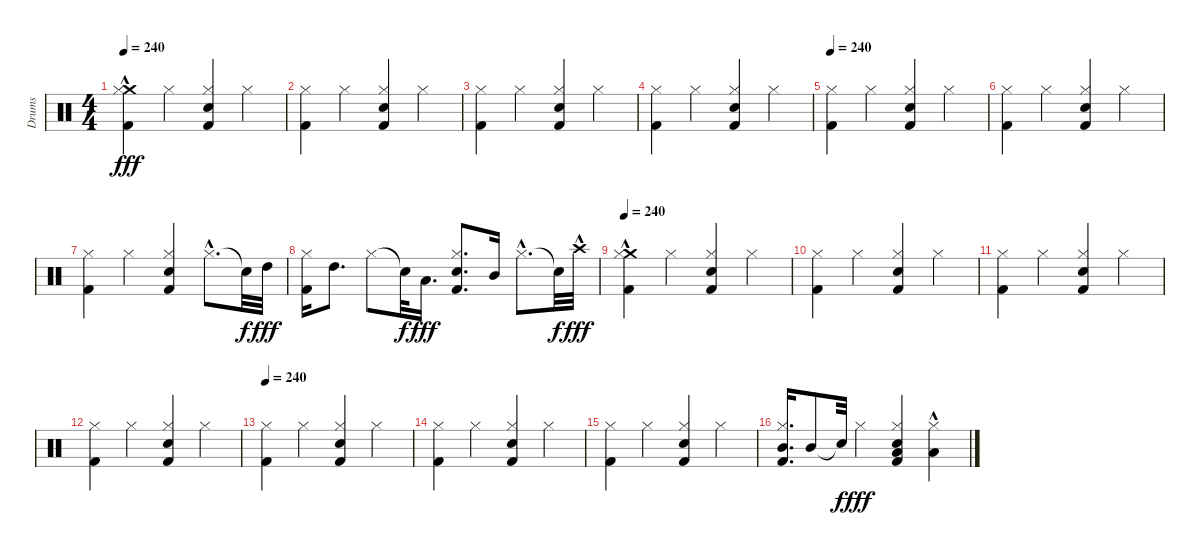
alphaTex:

\track ("Drums" "Drums") {instrument percussion}
\staff {score}
\articulation defaults
\ts (4 4)
\tempo 240
\clef neutral
\ks c
("Kick (hit) 2" "Crash medium (hit)"{hac} "Hi-Hat (closed)").4{dy fff} "Hi-Hat (closed)".4 ("Kick (hit) 2" "Snare (hit) 2" "Hi-Hat (closed)").4 "Hi-Hat (closed)".4 |
("Kick (hit) 2" "Hi-Hat (closed)").4 "Hi-Hat (closed)".4 ("Snare (hit) 2" "Kick (hit) 2" "Hi-Hat (closed)").4 "Hi-Hat (closed)".4 |
("Kick (hit) 2" "Hi-Hat (closed)").4 "Hi-Hat (closed)".4 ("Snare (hit) 2" "Hi-Hat (closed)" "Kick (hit) 2").4 "Hi-Hat (closed)".4 |
("Kick (hit) 2" "Hi-Hat (closed)").4 "Hi-Hat (closed)".4 ("Snare (hit) 2" "Kick (hit) 2" "Hi-Hat (closed)").4 "Hi-Hat (closed)".4 |
\tempo 240
("Kick (hit) 2" "Hi-Hat (closed)").4 "Hi-Hat (closed)".4 ("Kick (hit) 2" "Snare (hit) 2" "Hi-Hat (closed)").4 "Hi-Hat (closed)".4 |
("Kick (hit) 2" "Hi-Hat (closed)").4 "Hi-Hat (closed)".4 ("Hi-Hat (closed)" "Snare (hit) 2" "Kick (hit) 2").4 "Hi-Hat (closed)".4 |
("Kick (hit) 2" "Hi-Hat (closed)").4 "Hi-Hat (closed)".4 ("Kick (hit) 2" "Hi-Hat (closed)" "Snare (hit) 2").4 "Hi-Hat (closed)"{hac}.8{d} "Snare (hit)"{t}.32{dy f} "High Tom (hit)".32{dy fff} |
("Kick (hit) 2" "Hi-Hat (closed)").16 "High Tom (hit)".8{d} "Hi-Hat (closed)".8 "Snare (hit)"{t}.32{dy f} "Low Tom (hit)".16{d dy fff} ("Snare (hit) 2" "Kick (hit) 2" "Hi-Hat (closed)").8{d} "Mid Tom (hit)".16 "Hi-Hat (closed)"{hac}.8{d} "Snare (hit)"{t}.32{dy f} "Crash high (hit)"{hac}.32{dy fff} |
\tempo 240
("Crash medium (hit)"{hac} "Hi-Hat (closed)" "Kick (hit) 2").4 "Hi-Hat (closed)".4 ("Kick (hit) 2" "Snare (hit) 2" "Hi-Hat (closed)").4 "Hi-Hat (closed)".4 |
("Hi-Hat (closed)" "Kick (hit) 2").4 "Hi-Hat (closed)".4 ("Snare (hit) 2" "Kick (hit) 2" "Hi-Hat (closed)").4 "Hi-Hat (closed)".4 |
("Hi-Hat (closed)" "Kick (hit) 2").4 "Hi-Hat (closed)".4 ("Snare (hit) 2" "Hi-Hat (closed)" "Kick (hit) 2").4 "Hi-Hat (closed)".4 |
("Hi-Hat (closed)" "Kick (hit) 2").4 "Hi-Hat (closed)".4 ("Snare (hit) 2" "Kick (hit) 2" "Hi-Hat (closed)").4 "Hi-Hat (closed)".4 |
\tempo 240
("Hi-Hat (closed)" "Kick (hit) 2").4 "Hi-Hat (closed)".4 ("Kick (hit) 2" "Snare (hit) 2" "Hi-Hat (closed)").4 "Hi-Hat (closed)".4 |
("Hi-Hat (closed)" "Kick (hit) 2").4 "Hi-Hat (closed)".4 ("Hi-Hat (closed)" "Snare (hit) 2" "Kick (hit) 2").4 "Hi-Hat (closed)".4 |
("Hi-Hat (closed)" "Kick (hit) 2").4 "Hi-Hat (closed)".4 ("Kick (hit) 2" "Hi-Hat (closed)" "Snare (hit) 2").4 "Hi-Hat (closed)".4 |
("Mid Tom (hit)" "Hi-Hat (closed)" "Kick (hit) 2").16{d} "Mid Tom (hit)".8 "Snare (hit)"{t}.32{dy f} "Hi-Hat (closed)".4{dy fff} ("Low Floor Tom (hit)" "Snare (hit) 2" "Kick (hit) 2" "Hi-Hat (closed)").4 ("Hi-Hat (closed)" "Low Floor Tom (hit)"{hac}).4
